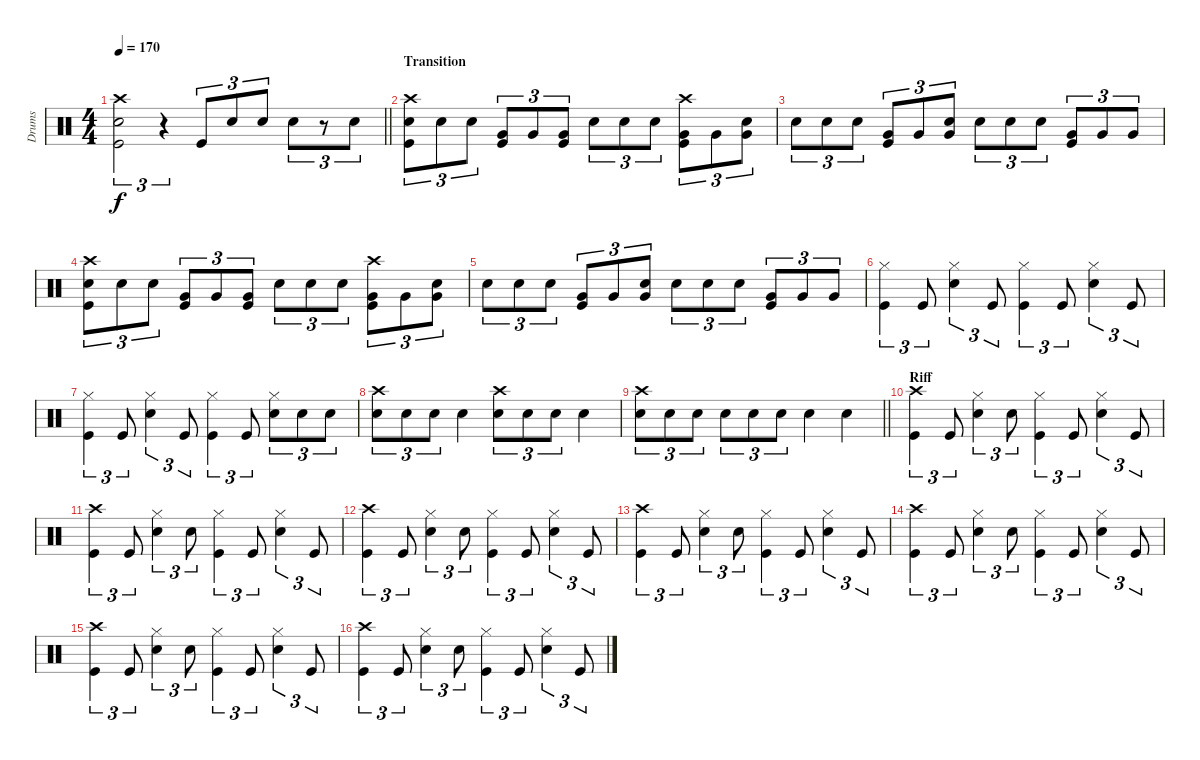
\track ("Drums" "Drums") {instrument percussion}
\staff {score}
\articulation defaults
\ts (4 4)
\tempo 170
\clef neutral
\barLineRight lightlight
\ks c
("Crash high (hit)" "Snare (hit) 2" "Kick (hit)").2{tu (3 2) dy f} r.4{tu (3 2)} "Kick (hit)".8{tu (3 2)} "Snare (hit) 2".8{tu (3 2)} "Snare (hit) 2".8{tu (3 2)} "Snare (hit) 2".8{tu (3 2)} r.8{tu (3 2)} "Snare (hit) 2".8{tu (3 2)} |
\section ("" "Transition")
("Crash high (hit)" "Snare (hit) 2" "Kick (hit)").8{tu (3 2)} "Snare (hit) 2".8{tu (3 2)} "Snare (hit) 2".8{tu (3 2)} ("Very Low Tom (hit)" "Kick (hit)").8{tu (3 2)} "Very Low Tom (hit)".8{tu (3 2)} ("Very Low Tom (hit)" "Kick (hit)").8{tu (3 2)} "Snare (hit) 2".8{tu (3 2)} "Snare (hit) 2".8{tu (3 2)} "Snare (hit) 2".8{tu (3 2)} ("Crash high (hit)" "Very Low Tom (hit)" "Kick (hit)").8{tu (3 2)} "Very Low Tom (hit)".8{tu (3 2)} ("Snare (hit) 2" "Very Low Tom (hit)").8{tu (3 2)} |
"Snare (hit) 2".8{tu (3 2)} "Snare (hit) 2".8{tu (3 2)} "Snare (hit) 2".8{tu (3 2)} ("Very Low Tom (hit)" "Kick (hit)").8{tu (3 2)} "Very Low Tom (hit)".8{tu (3 2)} ("Snare (hit) 2" "Very Low Tom (hit)").8{tu (3 2)} "Snare (hit) 2".8{tu (3 2)} "Snare (hit) 2".8{tu (3 2)} "Snare (hit) 2".8{tu (3 2)} ("Very Low Tom (hit)" "Kick (hit)").8{tu (3 2)} "Very Low Tom (hit)".8{tu (3 2)} "Very Low Tom (hit)".8{tu (3 2)} |
("Crash high (hit)" "Snare (hit) 2" "Kick (hit)").8{tu (3 2)} "Snare (hit) 2".8{tu (3 2)} "Snare (hit) 2".8{tu (3 2)} ("Very Low Tom (hit)" "Kick (hit)").8{tu (3 2)} "Very Low Tom (hit)".8{tu (3 2)} ("Very Low Tom (hit)" "Kick (hit)").8{tu (3 2)} "Snare (hit) 2".8{tu (3 2)} "Snare (hit) 2".8{tu (3 2)} "Snare (hit) 2".8{tu (3 2)} ("Crash high (hit)" "Very Low Tom (hit)" "Kick (hit)").8{tu (3 2)} "Very Low Tom (hit)".8{tu (3 2)} ("Snare (hit) 2" "Very Low Tom (hit)").8{tu (3 2)} |
"Snare (hit) 2".8{tu (3 2)} "Snare (hit) 2".8{tu (3 2)} "Snare (hit) 2".8{tu (3 2)} ("Very Low Tom (hit)" "Kick (hit)").8{tu (3 2)} "Very Low Tom (hit)".8{tu (3 2)} ("Snare (hit) 2" "Very Low Tom (hit)").8{tu (3 2)} "Snare (hit) 2".8{tu (3 2)} "Snare (hit) 2".8{tu (3 2)} "Snare (hit) 2".8{tu (3 2)} ("Very Low Tom (hit)" "Kick (hit)").8{tu (3 2)} "Very Low Tom (hit)".8{tu (3 2)} "Very Low Tom (hit)".8{tu (3 2)} |
("Hi-Hat (closed)" "Kick (hit)").4{tu (3 2)} "Kick (hit)".8{tu (3 2)} ("Hi-Hat (closed)" "Snare (hit) 2").4{tu (3 2)} "Kick (hit)".8{tu (3 2)} ("Hi-Hat (closed)" "Kick (hit)").4{tu (3 2)} "Kick (hit)".8{tu (3 2)} ("Hi-Hat (closed)" "Snare (hit) 2").4{tu (3 2)} "Kick (hit)".8{tu (3 2)} |
("Hi-Hat (closed)" "Kick (hit)").4{tu (3 2)} "Kick (hit)".8{tu (3 2)} ("Hi-Hat (closed)" "Snare (hit) 2").4{tu (3 2)} "Kick (hit)".8{tu (3 2)} ("Hi-Hat (closed)" "Kick (hit)").4{tu (3 2)} "Kick (hit)".8{tu (3 2)} ("Hi-Hat (closed)" "Snare (hit) 2").8{tu (3 2)} "Snare (hit) 2".8{tu (3 2)} "Snare (hit) 2".8{tu (3 2)} |
("Crash high (hit)" "Snare (hit) 2").8{tu (3 2)} "Snare (hit) 2".8{tu (3 2)} "Snare (hit) 2".8{tu (3 2)} "Snare (hit) 2".4 ("Crash high (hit)" "Snare (hit) 2").8{tu (3 2)} "Snare (hit) 2".8{tu (3 2)} "Snare (hit) 2".8{tu (3 2)} "Snare (hit) 2".4 |
\barLineRight lightlight
("Crash high (hit)" "Snare (hit) 2").8{tu (3 2)} "Snare (hit) 2".8{tu (3 2)} "Snare (hit) 2".8{tu (3 2)} "Snare (hit) 2".8{tu (3 2)} "Snare (hit) 2".8{tu (3 2)} "Snare (hit) 2".8{tu (3 2)} "Snare (hit) 2".4 "Snare (hit) 2".4 |
\section ("" "Riff")
("Crash high (hit)" "Kick (hit)").4{tu (3 2)} "Kick (hit)".8{tu (3 2)} ("Hi-Hat (closed)" "Snare (hit) 2").4{tu (3 2)} "Snare (hit) 2".8{tu (3 2)} ("Hi-Hat (closed)" "Kick (hit)").4{tu (3 2)} "Kick (hit)".8{tu (3 2)} ("Hi-Hat (closed)" "Snare (hit) 2").4{tu (3 2)} "Kick (hit)".8{tu (3 2)} |
("Crash high (hit)" "Kick (hit)").4{tu (3 2)} "Kick (hit)".8{tu (3 2)} ("Hi-Hat (closed)" "Snare (hit) 2").4{tu (3 2)} "Snare (hit) 2".8{tu (3 2)} ("Hi-Hat (closed)" "Kick (hit)").4{tu (3 2)} "Kick (hit)".8{tu (3 2)} ("Hi-Hat (closed)" "Snare (hit) 2").4{tu (3 2)} "Kick (hit)".8{tu (3 2)} |
("Crash high (hit)" "Kick (hit)").4{tu (3 2)} "Kick (hit)".8{tu (3 2)} ("Hi-Hat (closed)" "Snare (hit) 2").4{tu (3 2)} "Snare (hit) 2".8{tu (3 2)} ("Hi-Hat (closed)" "Kick (hit)").4{tu (3 2)} "Kick (hit)".8{tu (3 2)} ("Hi-Hat (closed)" "Snare (hit) 2").4{tu (3 2)} "Kick (hit)".8{tu (3 2)} |
("Crash high (hit)" "Kick (hit)").4{tu (3 2)} "Kick (hit)".8{tu (3 2)} ("Hi-Hat (closed)" "Snare (hit) 2").4{tu (3 2)} "Snare (hit) 2".8{tu (3 2)} ("Hi-Hat (closed)" "Kick (hit)").4{tu (3 2)} "Kick (hit)".8{tu (3 2)} ("Hi-Hat (closed)" "Snare (hit) 2").4{tu (3 2)} "Kick (hit)".8{tu (3 2)} |
("Crash high (hit)" "Kick (hit)").4{tu (3 2)} "Kick (hit)".8{tu (3 2)} ("Hi-Hat (closed)" "Snare (hit) 2").4{tu (3 2)} "Snare (hit) 2".8{tu (3 2)} ("Hi-Hat (closed)" "Kick (hit)").4{tu (3 2)} "Kick (hit)".8{tu (3 2)} ("Hi-Hat (closed)" "Snare (hit) 2").4{tu (3 2)} "Kick (hit)".8{tu (3 2)} |
("Crash high (hit)" "Kick (hit)").4{tu (3 2)} "Kick (hit)".8{tu (3 2)} ("Hi-Hat (closed)" "Snare (hit) 2").4{tu (3 2)} "Snare (hit) 2".8{tu (3 2)} ("Hi-Hat (closed)" "Kick (hit)").4{tu (3 2)} "Kick (hit)".8{tu (3 2)} ("Hi-Hat (closed)" "Snare (hit) 2").4{tu (3 2)} "Kick (hit)".8{tu (3 2)} |
("Crash high (hit)" "Kick (hit)").4{tu (3 2)} "Kick (hit)".8{tu (3 2)} ("Hi-Hat (closed)" "Snare (hit) 2").4{tu (3 2)} "Snare (hit) 2".8{tu (3 2)} ("Hi-Hat (closed)" "Kick (hit)").4{tu (3 2)} "Kick (hit)".8{tu (3 2)} ("Hi-Hat (closed)" "Snare (hit) 2").4{tu (3 2)} "Kick (hit)".8{tu (3 2)}
